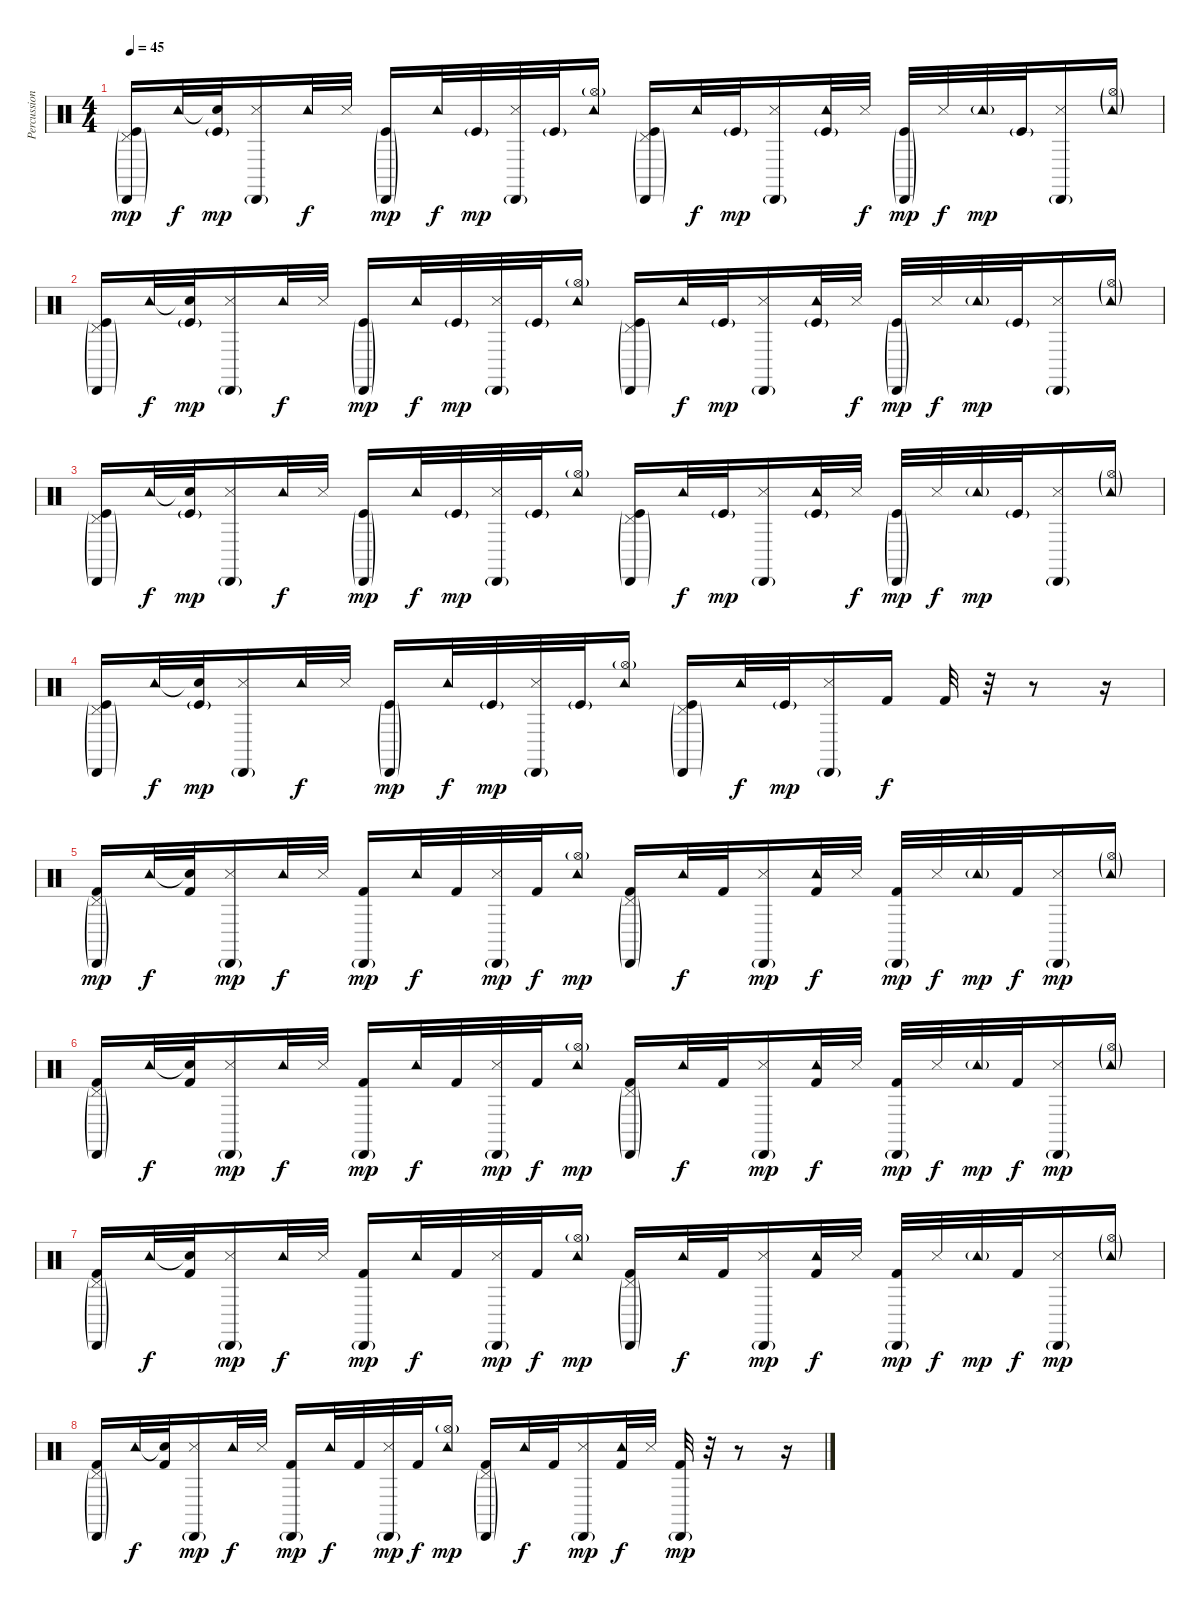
\track ("Percussion" "Percussion") {instrument percussion}
\staff {score}
\articulation defaults
\ts (4 4)
\tempo 45
\clef neutral
\ks c
("Pedal Hi-Hat (hit)"{g} "Cabasa (hit)"{g} "Kick (hit)"{g}).16{dy mp} "Tambourine (hit)".32{dy f} ("Snare (hit)"{t} "Kick (hit)"{g}).32{dy mp} ("Cabasa (hit)"{g} "Snare (side stick) 3").16 "Tambourine (hit)".32{dy f} "Snare (side stick) 3".32 ("Cabasa (hit)"{g} "Kick (hit)"{g}).16{dy mp} "Tambourine (hit)".32{dy f} "Kick (hit)"{g}.32{dy mp} ("Cabasa (hit)"{g} "Snare (side stick) 3").32 "Kick (hit)"{g}.32 ("Hi-Hat (open)"{g} "Tambourine (hit)").16 ("Pedal Hi-Hat (hit)"{g} "Cabasa (hit)"{g} "Kick (hit)"{g}).16 "Tambourine (hit)".32{dy f} "Kick (hit)"{g}.32{dy mp} ("Cabasa (hit)"{g} "Snare (side stick) 3").16 ("Tambourine (hit)" "Kick (hit)"{g}).32 "Snare (side stick) 3".32{dy f} ("Cabasa (hit)"{g} "Kick (hit)"{g}).32{dy mp} "Snare (side stick) 3".32{dy f} "Tambourine (hit)"{g}.32{dy mp} "Kick (hit)"{g}.32 ("Cabasa (hit)"{g} "Snare (side stick) 3").16 ("Hi-Hat (open)"{g} "Tambourine (hit)"{g}).16 |
("Pedal Hi-Hat (hit)"{g} "Cabasa (hit)"{g} "Kick (hit)"{g}).16 "Tambourine (hit)".32{dy f} ("Snare (hit)"{t} "Kick (hit)"{g}).32{dy mp} ("Cabasa (hit)"{g} "Snare (side stick) 3").16 "Tambourine (hit)".32{dy f} "Snare (side stick) 3".32 ("Cabasa (hit)"{g} "Kick (hit)"{g}).16{dy mp} "Tambourine (hit)".32{dy f} "Kick (hit)"{g}.32{dy mp} ("Cabasa (hit)"{g} "Snare (side stick) 3").32 "Kick (hit)"{g}.32 ("Hi-Hat (open)"{g} "Tambourine (hit)").16 ("Pedal Hi-Hat (hit)"{g} "Cabasa (hit)"{g} "Kick (hit)"{g}).16 "Tambourine (hit)".32{dy f} "Kick (hit)"{g}.32{dy mp} ("Cabasa (hit)"{g} "Snare (side stick) 3").16 ("Tambourine (hit)" "Kick (hit)"{g}).32 "Snare (side stick) 3".32{dy f} ("Cabasa (hit)"{g} "Kick (hit)"{g}).32{dy mp} "Snare (side stick) 3".32{dy f} "Tambourine (hit)"{g}.32{dy mp} "Kick (hit)"{g}.32 ("Cabasa (hit)"{g} "Snare (side stick) 3").16 ("Hi-Hat (open)"{g} "Tambourine (hit)"{g}).16 |
("Pedal Hi-Hat (hit)"{g} "Cabasa (hit)"{g} "Kick (hit)"{g}).16 "Tambourine (hit)".32{dy f} ("Snare (hit)"{t} "Kick (hit)"{g}).32{dy mp} ("Cabasa (hit)"{g} "Snare (side stick) 3").16 "Tambourine (hit)".32{dy f} "Snare (side stick) 3".32 ("Cabasa (hit)"{g} "Kick (hit)"{g}).16{dy mp} "Tambourine (hit)".32{dy f} "Kick (hit)"{g}.32{dy mp} ("Cabasa (hit)"{g} "Snare (side stick) 3").32 "Kick (hit)"{g}.32 ("Hi-Hat (open)"{g} "Tambourine (hit)").16 ("Pedal Hi-Hat (hit)"{g} "Cabasa (hit)"{g} "Kick (hit)"{g}).16 "Tambourine (hit)".32{dy f} "Kick (hit)"{g}.32{dy mp} ("Cabasa (hit)"{g} "Snare (side stick) 3").16 ("Tambourine (hit)" "Kick (hit)"{g}).32 "Snare (side stick) 3".32{dy f} ("Cabasa (hit)"{g} "Kick (hit)"{g}).32{dy mp} "Snare (side stick) 3".32{dy f} "Tambourine (hit)"{g}.32{dy mp} "Kick (hit)"{g}.32 ("Cabasa (hit)"{g} "Snare (side stick) 3").16 ("Hi-Hat (open)"{g} "Tambourine (hit)"{g}).16 |
("Pedal Hi-Hat (hit)"{g} "Cabasa (hit)"{g} "Kick (hit)"{g}).16 "Tambourine (hit)".32{dy f} ("Snare (hit)"{t} "Kick (hit)"{g}).32{dy mp} ("Cabasa (hit)"{g} "Snare (side stick) 3").16 "Tambourine (hit)".32{dy f} "Snare (side stick) 3".32 ("Cabasa (hit)"{g} "Kick (hit)"{g}).16{dy mp} "Tambourine (hit)".32{dy f} "Kick (hit)"{g}.32{dy mp} ("Cabasa (hit)"{g} "Snare (side stick) 3").32 "Kick (hit)"{g}.32 ("Hi-Hat (open)"{g} "Tambourine (hit)").16 ("Pedal Hi-Hat (hit)"{g} "Cabasa (hit)"{g} "Kick (hit)"{g}).16 "Tambourine (hit)".32{dy f} "Kick (hit)"{g}.32{dy mp} ("Cabasa (hit)"{g} "Snare (side stick) 3").16 "Kick (hit) 2".16{dy f} "Kick (hit) 2".32 r.32 r.8 r.16 |
("Pedal Hi-Hat (hit)"{g} "Cabasa (hit)"{g} "Kick (hit) 2").16{dy mp} "Tambourine (hit)".32{dy f} ("Snare (hit)"{t} "Kick (hit) 2").32 ("Cabasa (hit)"{g} "Snare (side stick) 3").16{dy mp} "Tambourine (hit)".32{dy f} "Snare (side stick) 3".32 ("Cabasa (hit)"{g} "Kick (hit) 2").16{dy mp} "Tambourine (hit)".32{dy f} "Kick (hit) 2".32 ("Cabasa (hit)"{g} "Snare (side stick) 3").32{dy mp} "Kick (hit) 2".32{dy f} ("Hi-Hat (open)"{g} "Tambourine (hit)").16{dy mp} ("Pedal Hi-Hat (hit)"{g} "Cabasa (hit)"{g} "Kick (hit) 2").16 "Tambourine (hit)".32{dy f} "Kick (hit) 2".32 ("Cabasa (hit)"{g} "Snare (side stick) 3").16{dy mp} ("Tambourine (hit)" "Kick (hit) 2").32{dy f} "Snare (side stick) 3".32 ("Cabasa (hit)"{g} "Kick (hit) 2").32{dy mp} "Snare (side stick) 3".32{dy f} "Tambourine (hit)"{g}.32{dy mp} "Kick (hit) 2".32{dy f} ("Cabasa (hit)"{g} "Snare (side stick) 3").16{dy mp} ("Hi-Hat (open)"{g} "Tambourine (hit)"{g}).16 |
("Pedal Hi-Hat (hit)"{g} "Cabasa (hit)"{g} "Kick (hit) 2").16 "Tambourine (hit)".32{dy f} ("Snare (hit)"{t} "Kick (hit) 2").32 ("Cabasa (hit)"{g} "Snare (side stick) 3").16{dy mp} "Tambourine (hit)".32{dy f} "Snare (side stick) 3".32 ("Cabasa (hit)"{g} "Kick (hit) 2").16{dy mp} "Tambourine (hit)".32{dy f} "Kick (hit) 2".32 ("Cabasa (hit)"{g} "Snare (side stick) 3").32{dy mp} "Kick (hit) 2".32{dy f} ("Hi-Hat (open)"{g} "Tambourine (hit)").16{dy mp} ("Pedal Hi-Hat (hit)"{g} "Cabasa (hit)"{g} "Kick (hit) 2").16 "Tambourine (hit)".32{dy f} "Kick (hit) 2".32 ("Cabasa (hit)"{g} "Snare (side stick) 3").16{dy mp} ("Tambourine (hit)" "Kick (hit) 2").32{dy f} "Snare (side stick) 3".32 ("Cabasa (hit)"{g} "Kick (hit) 2").32{dy mp} "Snare (side stick) 3".32{dy f} "Tambourine (hit)"{g}.32{dy mp} "Kick (hit) 2".32{dy f} ("Cabasa (hit)"{g} "Snare (side stick) 3").16{dy mp} ("Hi-Hat (open)"{g} "Tambourine (hit)"{g}).16 |
("Pedal Hi-Hat (hit)"{g} "Cabasa (hit)"{g} "Kick (hit) 2").16 "Tambourine (hit)".32{dy f} ("Snare (hit)"{t} "Kick (hit) 2").32 ("Cabasa (hit)"{g} "Snare (side stick) 3").16{dy mp} "Tambourine (hit)".32{dy f} "Snare (side stick) 3".32 ("Cabasa (hit)"{g} "Kick (hit) 2").16{dy mp} "Tambourine (hit)".32{dy f} "Kick (hit) 2".32 ("Cabasa (hit)"{g} "Snare (side stick) 3").32{dy mp} "Kick (hit) 2".32{dy f} ("Hi-Hat (open)"{g} "Tambourine (hit)").16{dy mp} ("Pedal Hi-Hat (hit)"{g} "Cabasa (hit)"{g} "Kick (hit) 2").16 "Tambourine (hit)".32{dy f} "Kick (hit) 2".32 ("Cabasa (hit)"{g} "Snare (side stick) 3").16{dy mp} ("Tambourine (hit)" "Kick (hit) 2").32{dy f} "Snare (side stick) 3".32 ("Cabasa (hit)"{g} "Kick (hit) 2").32{dy mp} "Snare (side stick) 3".32{dy f} "Tambourine (hit)"{g}.32{dy mp} "Kick (hit) 2".32{dy f} ("Cabasa (hit)"{g} "Snare (side stick) 3").16{dy mp} ("Hi-Hat (open)"{g} "Tambourine (hit)"{g}).16 |
("Pedal Hi-Hat (hit)"{g} "Cabasa (hit)"{g} "Kick (hit) 2").16 "Tambourine (hit)".32{dy f} ("Snare (hit)"{t} "Kick (hit) 2").32 ("Cabasa (hit)"{g} "Snare (side stick) 3").16{dy mp} "Tambourine (hit)".32{dy f} "Snare (side stick) 3".32 ("Cabasa (hit)"{g} "Kick (hit) 2").16{dy mp} "Tambourine (hit)".32{dy f} "Kick (hit) 2".32 ("Cabasa (hit)"{g} "Snare (side stick) 3").32{dy mp} "Kick (hit) 2".32{dy f} ("Hi-Hat (open)"{g} "Tambourine (hit)").16{dy mp} ("Pedal Hi-Hat (hit)"{g} "Cabasa (hit)"{g} "Kick (hit) 2").16 "Tambourine (hit)".32{dy f} "Kick (hit) 2".32 ("Cabasa (hit)"{g} "Snare (side stick) 3").16{dy mp} ("Tambourine (hit)" "Kick (hit) 2").32{dy f} "Snare (side stick) 3".32 ("Cabasa (hit)"{g} "Kick (hit) 2").32{dy mp} r.32 r.8 r.16
